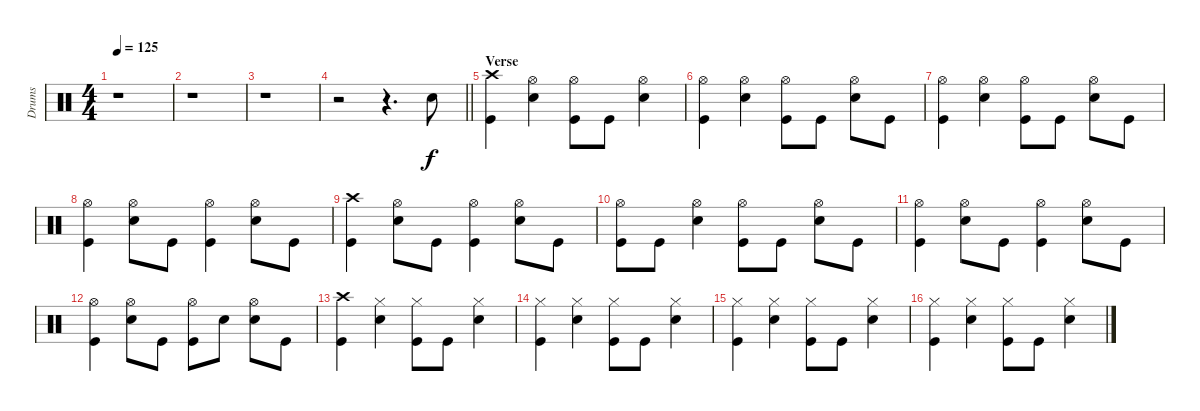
\track ("Drums" "Drums") {instrument percussion}
\staff {score}
\articulation defaults
\ts (4 4)
\tempo 125
\clef neutral
\ks c
r.1{dy f} |
r.1 |
r.1 |
\barLineRight lightlight
r.2 r.4{d} "Electric Snare (hit)".8 |
\section ("" "Verse ")
("Crash high (hit)" "Kick (hit)").4 ("Hi-Hat (open)" "Electric Snare (hit)").4 ("Hi-Hat (open)" "Kick (hit)").8 "Kick (hit)".8 ("Hi-Hat (open)" "Electric Snare (hit)").4 |
("Hi-Hat (open)" "Kick (hit)").4 ("Hi-Hat (open)" "Electric Snare (hit)").4 ("Hi-Hat (open)" "Kick (hit)").8 "Kick (hit)".8 ("Hi-Hat (open)" "Electric Snare (hit)").8 "Kick (hit)".8 |
("Hi-Hat (open)" "Kick (hit)").4 ("Hi-Hat (open)" "Electric Snare (hit)").4 ("Hi-Hat (open)" "Kick (hit)").8 "Kick (hit)".8 ("Hi-Hat (open)" "Electric Snare (hit)").8 "Kick (hit)".8 |
("Hi-Hat (open)" "Kick (hit)").4 ("Hi-Hat (open)" "Electric Snare (hit)").8 "Kick (hit)".8 ("Hi-Hat (open)" "Kick (hit)").4 ("Hi-Hat (open)" "Electric Snare (hit)").8 "Kick (hit)".8 |
("Crash high (hit)" "Kick (hit)").4 ("Hi-Hat (open)" "Electric Snare (hit)").8 "Kick (hit)".8 ("Hi-Hat (open)" "Kick (hit)").4 ("Hi-Hat (open)" "Electric Snare (hit)").8 "Kick (hit)".8 |
("Hi-Hat (open)" "Kick (hit)").8 "Kick (hit)".8 ("Hi-Hat (open)" "Electric Snare (hit)").4 ("Hi-Hat (open)" "Kick (hit)").8 "Kick (hit)".8 ("Hi-Hat (open)" "Electric Snare (hit)").8 "Kick (hit)".8 |
("Hi-Hat (open)" "Kick (hit)").4 ("Hi-Hat (open)" "Electric Snare (hit)").8 "Kick (hit)".8 ("Hi-Hat (open)" "Kick (hit)").4 ("Hi-Hat (open)" "Electric Snare (hit)").8 "Kick (hit)".8 |
("Hi-Hat (open)" "Kick (hit)").4 ("Hi-Hat (open)" "Electric Snare (hit)").8 "Kick (hit)".8 ("Hi-Hat (open)" "Kick (hit)").8 "Electric Snare (hit)".8 ("Hi-Hat (open)" "Electric Snare (hit)").8 "Kick (hit)".8 |
("Crash high (hit)" "Kick (hit)").4 ("Hi-Hat (closed)" "Electric Snare (hit)").4 ("Hi-Hat (closed)" "Kick (hit)").8 "Kick (hit)".8 ("Hi-Hat (closed)" "Electric Snare (hit)").4 |
("Hi-Hat (closed)" "Kick (hit)").4 ("Hi-Hat (closed)" "Electric Snare (hit)").4 ("Hi-Hat (closed)" "Kick (hit)").8 "Kick (hit)".8 ("Hi-Hat (closed)" "Electric Snare (hit)").4 |
("Hi-Hat (closed)" "Kick (hit)").4 ("Hi-Hat (closed)" "Electric Snare (hit)").4 ("Hi-Hat (closed)" "Kick (hit)").8 "Kick (hit)".8 ("Hi-Hat (closed)" "Electric Snare (hit)").4 |
("Hi-Hat (closed)" "Kick (hit)").4 ("Hi-Hat (closed)" "Electric Snare (hit)").4 ("Hi-Hat (closed)" "Kick (hit)").8 "Kick (hit)".8 ("Hi-Hat (closed)" "Electric Snare (hit)").4
